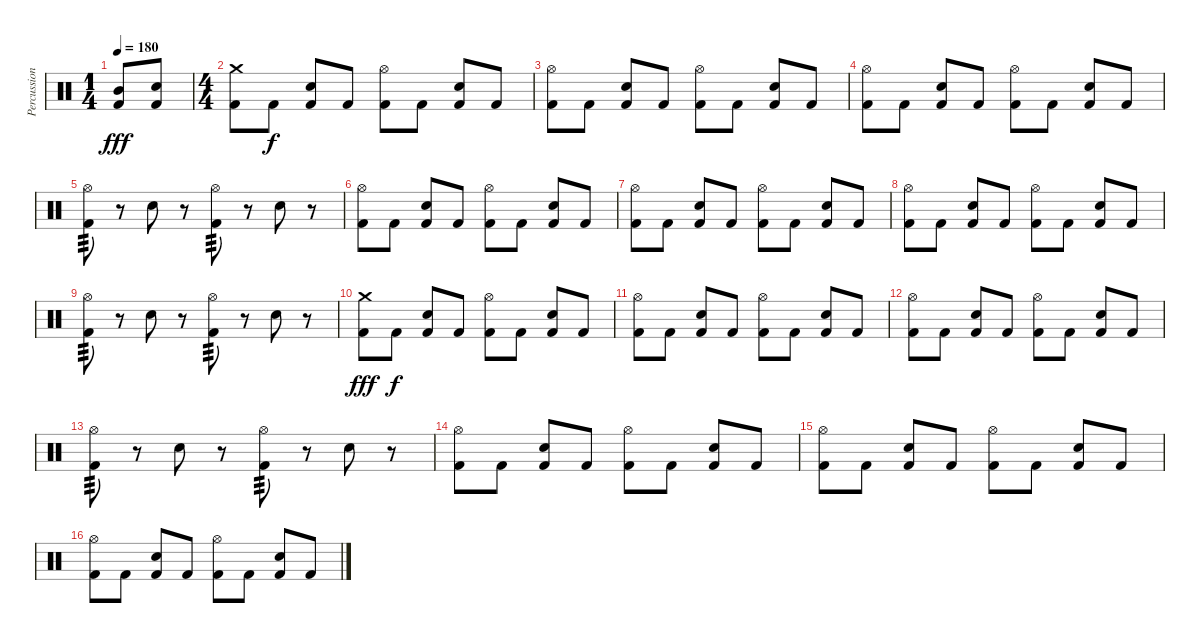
\track ("Percussion" "Percussion") {instrument percussion}
\staff {score}
\articulation defaults
\ts (1 4)
\tempo 180
\clef neutral
\ks c
("Mid Tom (hit)" "Kick (hit) 2").8{dy fff} ("Electric Snare (hit)" "Kick (hit) 2").8 |
\ts (4 4)
("Crash medium (hit)" "Kick (hit) 2").8 "Kick (hit) 2".8{dy f} ("Electric Snare (hit)" "Kick (hit) 2").8 "Kick (hit) 2".8 ("Hi-Hat (open)" "Kick (hit) 2").8 "Kick (hit) 2".8 ("Electric Snare (hit)" "Kick (hit) 2").8 "Kick (hit) 2".8 |
("Hi-Hat (open)" "Kick (hit) 2").8 "Kick (hit) 2".8 ("Electric Snare (hit)" "Kick (hit) 2").8 "Kick (hit) 2".8 ("Hi-Hat (open)" "Kick (hit) 2").8 "Kick (hit) 2".8 ("Electric Snare (hit)" "Kick (hit) 2").8 "Kick (hit) 2".8 |
("Hi-Hat (open)" "Kick (hit) 2").8 "Kick (hit) 2".8 ("Electric Snare (hit)" "Kick (hit) 2").8 "Kick (hit) 2".8 ("Hi-Hat (open)" "Kick (hit) 2").8 "Kick (hit) 2".8 ("Electric Snare (hit)" "Kick (hit) 2").8 "Kick (hit) 2".8 |
("Hi-Hat (open)" "Kick (hit) 2").8{tp 3} r.8 "Electric Snare (hit)".8 r.8 ("Hi-Hat (open)" "Kick (hit) 2").8{tp 3} r.8 "Electric Snare (hit)".8 r.8 |
("Hi-Hat (open)" "Kick (hit) 2").8 "Kick (hit) 2".8 ("Electric Snare (hit)" "Kick (hit) 2").8 "Kick (hit) 2".8 ("Hi-Hat (open)" "Kick (hit) 2").8 "Kick (hit) 2".8 ("Electric Snare (hit)" "Kick (hit) 2").8 "Kick (hit) 2".8 |
("Hi-Hat (open)" "Kick (hit) 2").8 "Kick (hit) 2".8 ("Electric Snare (hit)" "Kick (hit) 2").8 "Kick (hit) 2".8 ("Hi-Hat (open)" "Kick (hit) 2").8 "Kick (hit) 2".8 ("Electric Snare (hit)" "Kick (hit) 2").8 "Kick (hit) 2".8 |
("Hi-Hat (open)" "Kick (hit) 2").8 "Kick (hit) 2".8 ("Electric Snare (hit)" "Kick (hit) 2").8 "Kick (hit) 2".8 ("Hi-Hat (open)" "Kick (hit) 2").8 "Kick (hit) 2".8 ("Electric Snare (hit)" "Kick (hit) 2").8 "Kick (hit) 2".8 |
("Hi-Hat (open)" "Kick (hit) 2").8{tp 3} r.8 "Electric Snare (hit)".8 r.8 ("Hi-Hat (open)" "Kick (hit) 2").8{tp 3} r.8 "Electric Snare (hit)".8 r.8 |
("Crash medium (hit)" "Kick (hit) 2").8{dy fff} "Kick (hit) 2".8{dy f} ("Electric Snare (hit)" "Kick (hit) 2").8 "Kick (hit) 2".8 ("Hi-Hat (open)" "Kick (hit) 2").8 "Kick (hit) 2".8 ("Electric Snare (hit)" "Kick (hit) 2").8 "Kick (hit) 2".8 |
("Hi-Hat (open)" "Kick (hit) 2").8 "Kick (hit) 2".8 ("Electric Snare (hit)" "Kick (hit) 2").8 "Kick (hit) 2".8 ("Hi-Hat (open)" "Kick (hit) 2").8 "Kick (hit) 2".8 ("Electric Snare (hit)" "Kick (hit) 2").8 "Kick (hit) 2".8 |
("Hi-Hat (open)" "Kick (hit) 2").8 "Kick (hit) 2".8 ("Electric Snare (hit)" "Kick (hit) 2").8 "Kick (hit) 2".8 ("Hi-Hat (open)" "Kick (hit) 2").8 "Kick (hit) 2".8 ("Electric Snare (hit)" "Kick (hit) 2").8 "Kick (hit) 2".8 |
("Hi-Hat (open)" "Kick (hit) 2").8{tp 3} r.8 "Electric Snare (hit)".8 r.8 ("Hi-Hat (open)" "Kick (hit) 2").8{tp 3} r.8 "Electric Snare (hit)".8 r.8 |
("Hi-Hat (open)" "Kick (hit) 2").8 "Kick (hit) 2".8 ("Electric Snare (hit)" "Kick (hit) 2").8 "Kick (hit) 2".8 ("Hi-Hat (open)" "Kick (hit) 2").8 "Kick (hit) 2".8 ("Electric Snare (hit)" "Kick (hit) 2").8 "Kick (hit) 2".8 |
("Hi-Hat (open)" "Kick (hit) 2").8 "Kick (hit) 2".8 ("Electric Snare (hit)" "Kick (hit) 2").8 "Kick (hit) 2".8 ("Hi-Hat (open)" "Kick (hit) 2").8 "Kick (hit) 2".8 ("Electric Snare (hit)" "Kick (hit) 2").8 "Kick (hit) 2".8 |
("Hi-Hat (open)" "Kick (hit) 2").8 "Kick (hit) 2".8 ("Electric Snare (hit)" "Kick (hit) 2").8 "Kick (hit) 2".8 ("Hi-Hat (open)" "Kick (hit) 2").8 "Kick (hit) 2".8 ("Electric Snare (hit)" "Kick (hit) 2").8 "Kick (hit) 2".8
